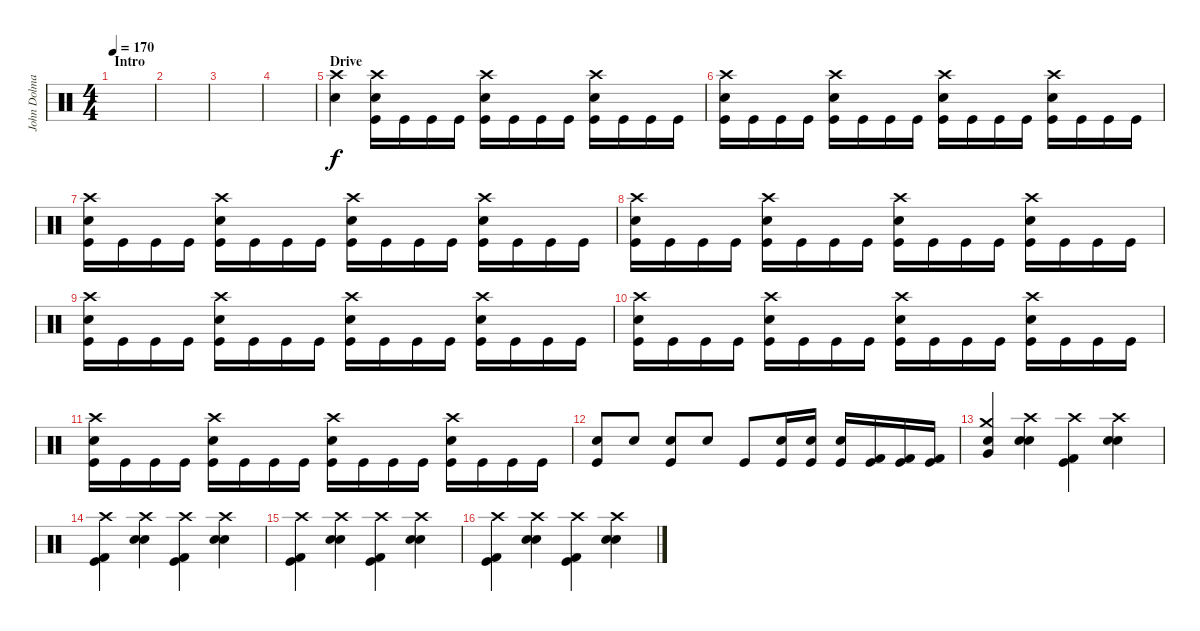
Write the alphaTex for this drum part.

\track ("John Dolmayan" "John Dolma") {instrument percussion}
\staff {score}
\articulation defaults
\ts (4 4)
\section ("" "Intro")
\tempo 170
\clef neutral
\ks c
|
|
|
|
\section ("" "Drive")
("Crash high (hit)" "Snare (hit) 2").4 ("Kick (hit)" "Snare (hit) 2" "Crash high (hit)").16 "Kick (hit)".16 "Kick (hit)".16 "Kick (hit)".16 ("Kick (hit)" "Snare (hit) 2" "Crash high (hit)").16 "Kick (hit)".16 "Kick (hit)".16 "Kick (hit)".16 ("Kick (hit)" "Snare (hit) 2" "Crash high (hit)").16 "Kick (hit)".16 "Kick (hit)".16 "Kick (hit)".16 |
("Kick (hit)" "Snare (hit) 2" "Crash high (hit)").16 "Kick (hit)".16 "Kick (hit)".16 "Kick (hit)".16 ("Kick (hit)" "Snare (hit) 2" "Crash high (hit)").16 "Kick (hit)".16 "Kick (hit)".16 "Kick (hit)".16 ("Kick (hit)" "Snare (hit) 2" "Crash high (hit)").16 "Kick (hit)".16 "Kick (hit)".16 "Kick (hit)".16 ("Kick (hit)" "Snare (hit) 2" "Crash high (hit)").16 "Kick (hit)".16 "Kick (hit)".16 "Kick (hit)".16 |
("Kick (hit)" "Snare (hit) 2" "Crash high (hit)").16 "Kick (hit)".16 "Kick (hit)".16 "Kick (hit)".16 ("Kick (hit)" "Snare (hit) 2" "Crash high (hit)").16 "Kick (hit)".16 "Kick (hit)".16 "Kick (hit)".16 ("Kick (hit)" "Snare (hit) 2" "Crash high (hit)").16 "Kick (hit)".16 "Kick (hit)".16 "Kick (hit)".16 ("Kick (hit)" "Snare (hit) 2" "Crash high (hit)").16 "Kick (hit)".16 "Kick (hit)".16 "Kick (hit)".16 |
("Kick (hit)" "Snare (hit) 2" "Crash high (hit)").16 "Kick (hit)".16 "Kick (hit)".16 "Kick (hit)".16 ("Kick (hit)" "Snare (hit) 2" "Crash high (hit)").16 "Kick (hit)".16 "Kick (hit)".16 "Kick (hit)".16 ("Kick (hit)" "Snare (hit) 2" "Crash high (hit)").16 "Kick (hit)".16 "Kick (hit)".16 "Kick (hit)".16 ("Kick (hit)" "Snare (hit) 2" "Crash high (hit)").16 "Kick (hit)".16 "Kick (hit)".16 "Kick (hit)".16 |
("Kick (hit)" "Snare (hit) 2" "Crash high (hit)").16 "Kick (hit)".16 "Kick (hit)".16 "Kick (hit)".16 ("Kick (hit)" "Snare (hit) 2" "Crash high (hit)").16 "Kick (hit)".16 "Kick (hit)".16 "Kick (hit)".16 ("Kick (hit)" "Snare (hit) 2" "Crash high (hit)").16 "Kick (hit)".16 "Kick (hit)".16 "Kick (hit)".16 ("Kick (hit)" "Snare (hit) 2" "Crash high (hit)").16 "Kick (hit)".16 "Kick (hit)".16 "Kick (hit)".16 |
("Kick (hit)" "Snare (hit) 2" "Crash high (hit)").16 "Kick (hit)".16 "Kick (hit)".16 "Kick (hit)".16 ("Kick (hit)" "Snare (hit) 2" "Crash high (hit)").16 "Kick (hit)".16 "Kick (hit)".16 "Kick (hit)".16 ("Kick (hit)" "Snare (hit) 2" "Crash high (hit)").16 "Kick (hit)".16 "Kick (hit)".16 "Kick (hit)".16 ("Kick (hit)" "Snare (hit) 2" "Crash high (hit)").16 "Kick (hit)".16 "Kick (hit)".16 "Kick (hit)".16 |
("Kick (hit)" "Snare (hit) 2" "Crash high (hit)").16 "Kick (hit)".16 "Kick (hit)".16 "Kick (hit)".16 ("Kick (hit)" "Snare (hit) 2" "Crash high (hit)").16 "Kick (hit)".16 "Kick (hit)".16 "Kick (hit)".16 ("Kick (hit)" "Snare (hit) 2" "Crash high (hit)").16 "Kick (hit)".16 "Kick (hit)".16 "Kick (hit)".16 ("Kick (hit)" "Snare (hit) 2" "Crash high (hit)").16 "Kick (hit)".16 "Kick (hit)".16 "Kick (hit)".16 |
("Electric Snare (hit)" "Kick (hit)").8 "Snare (hit) 2".8 ("Electric Snare (hit)" "Kick (hit)").8 "Snare (hit) 2".8 "Kick (hit)".8 ("Snare (hit) 2" "Kick (hit)").16 ("Snare (hit) 2" "Kick (hit)").16 ("Electric Snare (hit)" "Kick (hit)").16 ("Kick (hit)" "Kick (hit) 2").16 ("Kick (hit)" "Kick (hit) 2").16 ("Kick (hit)" "Kick (hit) 2").16 |
("Crash medium (hit)" "Very Low Tom (hit)" "Snare (hit) 2").4 ("Crash high (hit)" "Snare (hit) 2" "Electric Snare (hit)").4 ("Crash high (hit)" "Kick (hit) 2" "Kick (hit)").4 ("Crash high (hit)" "Snare (hit) 2" "Electric Snare (hit)").4 |
("Crash high (hit)" "Kick (hit) 2" "Kick (hit)").4 ("Crash high (hit)" "Snare (hit) 2" "Electric Snare (hit)").4 ("Crash high (hit)" "Kick (hit) 2" "Kick (hit)").4 ("Crash high (hit)" "Snare (hit) 2" "Electric Snare (hit)").4 |
("Crash high (hit)" "Kick (hit) 2" "Kick (hit)").4 ("Crash high (hit)" "Snare (hit) 2" "Electric Snare (hit)").4 ("Crash high (hit)" "Kick (hit) 2" "Kick (hit)").4 ("Crash high (hit)" "Snare (hit) 2" "Electric Snare (hit)").4 |
("Crash high (hit)" "Kick (hit) 2" "Kick (hit)").4 ("Crash high (hit)" "Snare (hit) 2" "Electric Snare (hit)").4 ("Crash high (hit)" "Kick (hit) 2" "Kick (hit)").4 ("Crash high (hit)" "Snare (hit) 2" "Electric Snare (hit)").4
